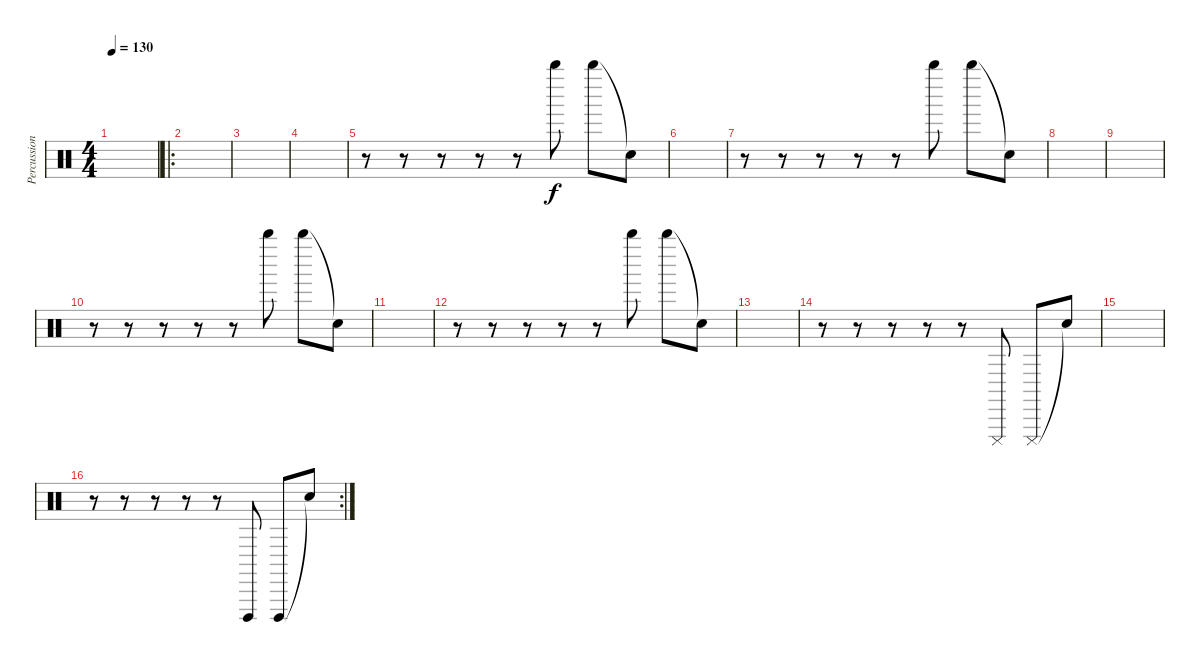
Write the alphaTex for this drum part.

\track ("Percussion" "Percussion") {instrument percussion}
\staff {score}
\articulation defaults
\ts (4 4)
\tempo 130
\clef neutral
\ks c
|
\ro
|
|
|
r.8 r.8 r.8 r.8 r.8 "Whistle high (hit)".8 "Whistle high (hit)".8 "Snare (hit)"{t}.8 |
|
r.8 r.8 r.8 r.8 r.8 "Whistle high (hit)".8 "Whistle high (hit)".8 "Snare (hit)"{t}.8 |
|
|
r.8 r.8 r.8 r.8 r.8 "Whistle high (hit)".8 "Whistle high (hit)".8 "Snare (hit)"{t}.8 |
|
r.8 r.8 r.8 r.8 r.8 "Whistle high (hit)".8 "Whistle high (hit)".8 "Snare (hit)"{t}.8 |
|
r.8 r.8 r.8 r.8 r.8 "Cuica (mute)".8 "Cuica (mute)".8 "Snare (hit)"{t}.8 |
|
\rc 2
r.8 r.8 r.8 r.8 r.8 "Cuica (open)".8 "Cuica (open)".8 "Snare (hit)"{t}.8
